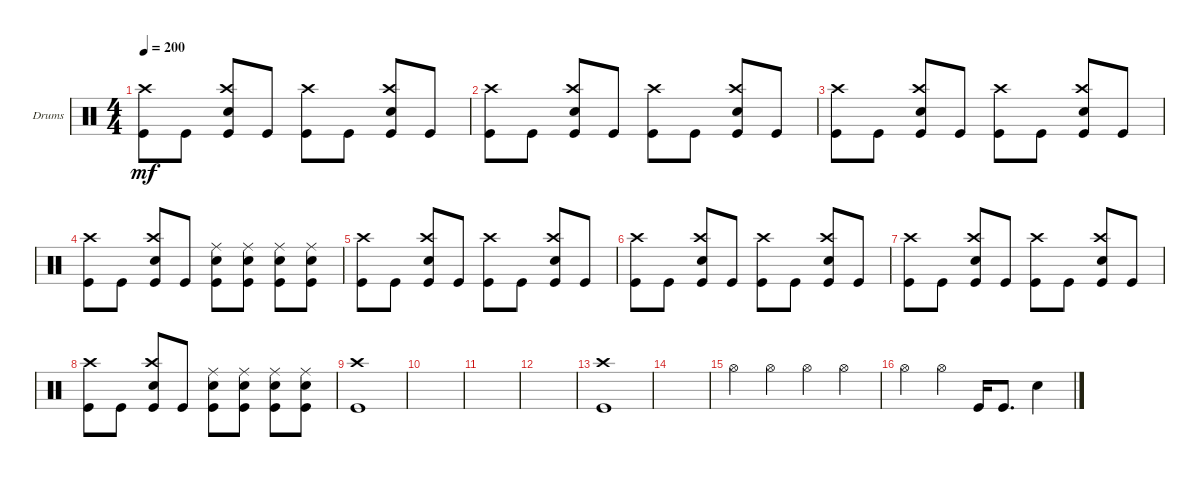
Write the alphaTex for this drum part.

\bracketExtendMode groupsimilarinstruments
\firstSystemTrackNameOrientation horizontal
\otherSystemsTrackNameOrientation horizontal
\track ("Drumkit" "Drums") {instrument percussion}
\staff {score}
\articulation defaults
\ts (4 4)
\tempo 200
\clef neutral
\ks c
("Kick (hit)" "Crash high (hit)").8{dy mf} "Kick (hit)".8 ("Kick (hit)" "Snare (hit) 2" "Crash high (hit)").8 "Kick (hit)".8 ("Kick (hit)" "Crash high (hit)").8 "Kick (hit)".8 ("Kick (hit)" "Snare (hit) 2" "Crash high (hit)").8 "Kick (hit)".8 |
("Kick (hit)" "Crash high (hit)").8 "Kick (hit)".8 ("Kick (hit)" "Snare (hit) 2" "Crash high (hit)").8 "Kick (hit)".8 ("Kick (hit)" "Crash high (hit)").8 "Kick (hit)".8 ("Kick (hit)" "Snare (hit) 2" "Crash high (hit)").8 "Kick (hit)".8 |
("Kick (hit)" "Crash high (hit)").8 "Kick (hit)".8 ("Kick (hit)" "Snare (hit) 2" "Crash high (hit)").8 "Kick (hit)".8 ("Kick (hit)" "Crash high (hit)").8 "Kick (hit)".8 ("Kick (hit)" "Snare (hit) 2" "Crash high (hit)").8 "Kick (hit)".8 |
("Kick (hit)" "Crash high (hit)").8 "Kick (hit)".8 ("Kick (hit)" "Snare (hit) 2" "Crash high (hit)").8 "Kick (hit)".8 ("Kick (hit)" "Snare (hit) 2" "Ride (middle)").8 ("Kick (hit)" "Snare (hit) 2" "Ride (middle)").8 ("Kick (hit)" "Snare (hit) 2" "Ride (middle)").8 ("Kick (hit)" "Snare (hit) 2" "Ride (middle)").8 |
("Kick (hit)" "Crash high (hit)").8 "Kick (hit)".8 ("Kick (hit)" "Snare (hit) 2" "Crash high (hit)").8 "Kick (hit)".8 ("Kick (hit)" "Crash high (hit)").8 "Kick (hit)".8 ("Kick (hit)" "Snare (hit) 2" "Crash high (hit)").8 "Kick (hit)".8 |
("Kick (hit)" "Crash high (hit)").8 "Kick (hit)".8 ("Kick (hit)" "Snare (hit) 2" "Crash high (hit)").8 "Kick (hit)".8 ("Kick (hit)" "Crash high (hit)").8 "Kick (hit)".8 ("Kick (hit)" "Snare (hit) 2" "Crash high (hit)").8 "Kick (hit)".8 |
("Kick (hit)" "Crash high (hit)").8 "Kick (hit)".8 ("Kick (hit)" "Snare (hit) 2" "Crash high (hit)").8 "Kick (hit)".8 ("Kick (hit)" "Crash high (hit)").8 "Kick (hit)".8 ("Kick (hit)" "Snare (hit) 2" "Crash high (hit)").8 "Kick (hit)".8 |
("Kick (hit)" "Crash high (hit)").8 "Kick (hit)".8 ("Kick (hit)" "Snare (hit) 2" "Crash high (hit)").8 "Kick (hit)".8 ("Kick (hit)" "Snare (hit) 2" "Ride (middle)").8 ("Kick (hit)" "Snare (hit) 2" "Ride (middle)").8 ("Kick (hit)" "Snare (hit) 2" "Ride (middle)").8 ("Kick (hit)" "Snare (hit) 2" "Ride (middle)").8 |
("Kick (hit)" "Crash high (hit)").1 |
|
|
|
("Kick (hit)" "Crash high (hit)").1 |
|
"Hi-Hat (open)".4 "Hi-Hat (open)".4 "Hi-Hat (open)".4 "Hi-Hat (open)".4 |
"Hi-Hat (open)".4 "Hi-Hat (open)".4 "Kick (hit)".16 "Kick (hit)".8{d} "Snare (hit) 2".4
